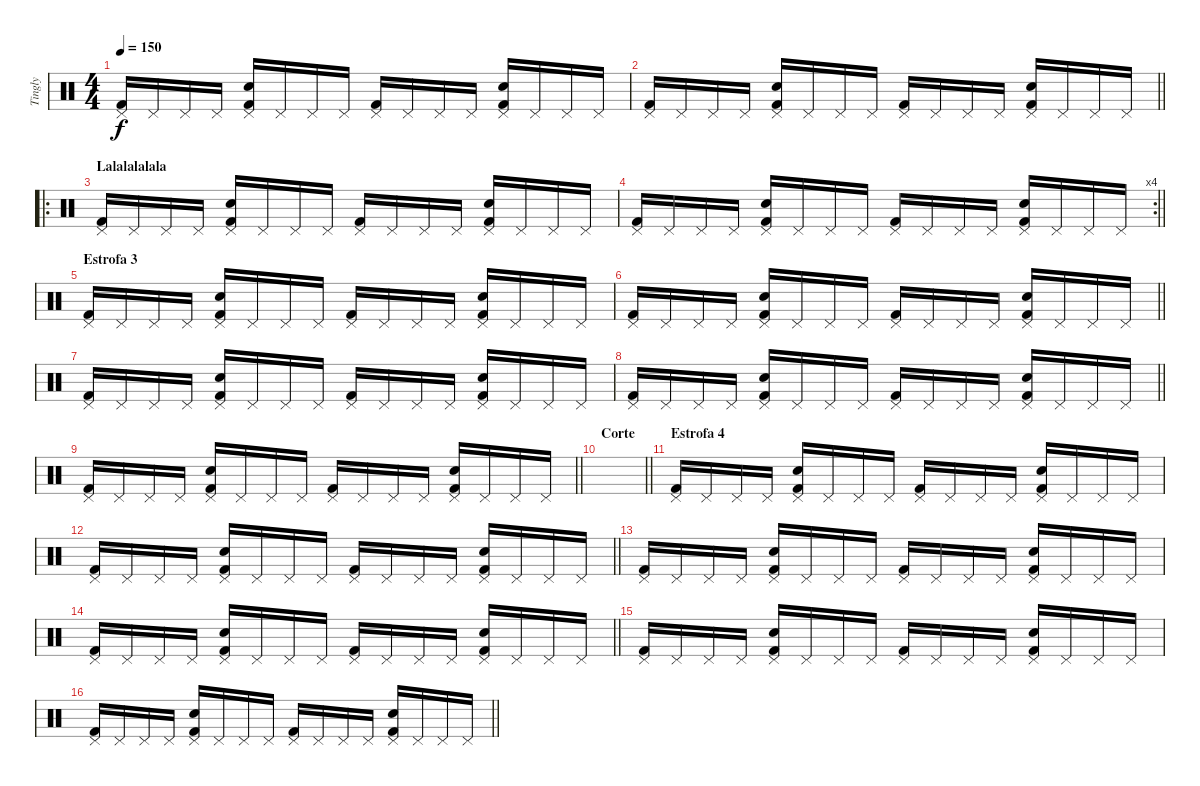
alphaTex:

\track ("Tingly" "Tingly") {instrument percussion}
\staff {score}
\articulation defaults
\ts (4 4)
\tempo 150
\clef neutral
\ks c
("Pedal Hi-Hat (hit)" "Kick (hit) 2").16{dy f} "Pedal Hi-Hat (hit)".16 "Pedal Hi-Hat (hit)".16 "Pedal Hi-Hat (hit)".16 ("Electric Snare (hit)" "Pedal Hi-Hat (hit)" "Kick (hit) 2").16 "Pedal Hi-Hat (hit)".16 "Pedal Hi-Hat (hit)".16 "Pedal Hi-Hat (hit)".16 ("Pedal Hi-Hat (hit)" "Kick (hit) 2").16 "Pedal Hi-Hat (hit)".16 "Pedal Hi-Hat (hit)".16 "Pedal Hi-Hat (hit)".16 ("Electric Snare (hit)" "Pedal Hi-Hat (hit)" "Kick (hit) 2").16 "Pedal Hi-Hat (hit)".16 "Pedal Hi-Hat (hit)".16 "Pedal Hi-Hat (hit)".16 |
\barLineRight lightlight
("Pedal Hi-Hat (hit)" "Kick (hit) 2").16 "Pedal Hi-Hat (hit)".16 "Pedal Hi-Hat (hit)".16 "Pedal Hi-Hat (hit)".16 ("Electric Snare (hit)" "Pedal Hi-Hat (hit)" "Kick (hit) 2").16 "Pedal Hi-Hat (hit)".16 "Pedal Hi-Hat (hit)".16 "Pedal Hi-Hat (hit)".16 ("Pedal Hi-Hat (hit)" "Kick (hit) 2").16 "Pedal Hi-Hat (hit)".16 "Pedal Hi-Hat (hit)".16 "Pedal Hi-Hat (hit)".16 ("Electric Snare (hit)" "Pedal Hi-Hat (hit)" "Kick (hit) 2").16 "Pedal Hi-Hat (hit)".16 "Pedal Hi-Hat (hit)".16 "Pedal Hi-Hat (hit)".16 |
\ro
\section ("" "Lalalalalala")
("Pedal Hi-Hat (hit)" "Kick (hit) 2").16 "Pedal Hi-Hat (hit)".16 "Pedal Hi-Hat (hit)".16 "Pedal Hi-Hat (hit)".16 ("Electric Snare (hit)" "Pedal Hi-Hat (hit)" "Kick (hit) 2").16 "Pedal Hi-Hat (hit)".16 "Pedal Hi-Hat (hit)".16 "Pedal Hi-Hat (hit)".16 ("Pedal Hi-Hat (hit)" "Kick (hit) 2").16 "Pedal Hi-Hat (hit)".16 "Pedal Hi-Hat (hit)".16 "Pedal Hi-Hat (hit)".16 ("Electric Snare (hit)" "Pedal Hi-Hat (hit)" "Kick (hit) 2").16 "Pedal Hi-Hat (hit)".16 "Pedal Hi-Hat (hit)".16 "Pedal Hi-Hat (hit)".16 |
\rc 4
\barLineRight lightlight
("Pedal Hi-Hat (hit)" "Kick (hit) 2").16 "Pedal Hi-Hat (hit)".16 "Pedal Hi-Hat (hit)".16 "Pedal Hi-Hat (hit)".16 ("Electric Snare (hit)" "Pedal Hi-Hat (hit)" "Kick (hit) 2").16 "Pedal Hi-Hat (hit)".16 "Pedal Hi-Hat (hit)".16 "Pedal Hi-Hat (hit)".16 ("Pedal Hi-Hat (hit)" "Kick (hit) 2").16 "Pedal Hi-Hat (hit)".16 "Pedal Hi-Hat (hit)".16 "Pedal Hi-Hat (hit)".16 ("Electric Snare (hit)" "Pedal Hi-Hat (hit)" "Kick (hit) 2").16 "Pedal Hi-Hat (hit)".16 "Pedal Hi-Hat (hit)".16 "Pedal Hi-Hat (hit)".16 |
\section ("" "Estrofa 3")
("Pedal Hi-Hat (hit)" "Kick (hit) 2").16 "Pedal Hi-Hat (hit)".16 "Pedal Hi-Hat (hit)".16 "Pedal Hi-Hat (hit)".16 ("Electric Snare (hit)" "Pedal Hi-Hat (hit)" "Kick (hit) 2").16 "Pedal Hi-Hat (hit)".16 "Pedal Hi-Hat (hit)".16 "Pedal Hi-Hat (hit)".16 ("Pedal Hi-Hat (hit)" "Kick (hit) 2").16 "Pedal Hi-Hat (hit)".16 "Pedal Hi-Hat (hit)".16 "Pedal Hi-Hat (hit)".16 ("Electric Snare (hit)" "Pedal Hi-Hat (hit)" "Kick (hit) 2").16 "Pedal Hi-Hat (hit)".16 "Pedal Hi-Hat (hit)".16 "Pedal Hi-Hat (hit)".16 |
\barLineRight lightlight
("Pedal Hi-Hat (hit)" "Kick (hit) 2").16 "Pedal Hi-Hat (hit)".16 "Pedal Hi-Hat (hit)".16 "Pedal Hi-Hat (hit)".16 ("Electric Snare (hit)" "Pedal Hi-Hat (hit)" "Kick (hit) 2").16 "Pedal Hi-Hat (hit)".16 "Pedal Hi-Hat (hit)".16 "Pedal Hi-Hat (hit)".16 ("Pedal Hi-Hat (hit)" "Kick (hit) 2").16 "Pedal Hi-Hat (hit)".16 "Pedal Hi-Hat (hit)".16 "Pedal Hi-Hat (hit)".16 ("Electric Snare (hit)" "Pedal Hi-Hat (hit)" "Kick (hit) 2").16 "Pedal Hi-Hat (hit)".16 "Pedal Hi-Hat (hit)".16 "Pedal Hi-Hat (hit)".16 |
("Pedal Hi-Hat (hit)" "Kick (hit) 2").16 "Pedal Hi-Hat (hit)".16 "Pedal Hi-Hat (hit)".16 "Pedal Hi-Hat (hit)".16 ("Electric Snare (hit)" "Pedal Hi-Hat (hit)" "Kick (hit) 2").16 "Pedal Hi-Hat (hit)".16 "Pedal Hi-Hat (hit)".16 "Pedal Hi-Hat (hit)".16 ("Pedal Hi-Hat (hit)" "Kick (hit) 2").16 "Pedal Hi-Hat (hit)".16 "Pedal Hi-Hat (hit)".16 "Pedal Hi-Hat (hit)".16 ("Electric Snare (hit)" "Pedal Hi-Hat (hit)" "Kick (hit) 2").16 "Pedal Hi-Hat (hit)".16 "Pedal Hi-Hat (hit)".16 "Pedal Hi-Hat (hit)".16 |
\barLineRight lightlight
("Pedal Hi-Hat (hit)" "Kick (hit) 2").16 "Pedal Hi-Hat (hit)".16 "Pedal Hi-Hat (hit)".16 "Pedal Hi-Hat (hit)".16 ("Electric Snare (hit)" "Pedal Hi-Hat (hit)" "Kick (hit) 2").16 "Pedal Hi-Hat (hit)".16 "Pedal Hi-Hat (hit)".16 "Pedal Hi-Hat (hit)".16 ("Pedal Hi-Hat (hit)" "Kick (hit) 2").16 "Pedal Hi-Hat (hit)".16 "Pedal Hi-Hat (hit)".16 "Pedal Hi-Hat (hit)".16 ("Electric Snare (hit)" "Pedal Hi-Hat (hit)" "Kick (hit) 2").16 "Pedal Hi-Hat (hit)".16 "Pedal Hi-Hat (hit)".16 "Pedal Hi-Hat (hit)".16 |
\barLineRight lightlight
("Pedal Hi-Hat (hit)" "Kick (hit) 2").16 "Pedal Hi-Hat (hit)".16 "Pedal Hi-Hat (hit)".16 "Pedal Hi-Hat (hit)".16 ("Electric Snare (hit)" "Pedal Hi-Hat (hit)" "Kick (hit) 2").16 "Pedal Hi-Hat (hit)".16 "Pedal Hi-Hat (hit)".16 "Pedal Hi-Hat (hit)".16 ("Pedal Hi-Hat (hit)" "Kick (hit) 2").16 "Pedal Hi-Hat (hit)".16 "Pedal Hi-Hat (hit)".16 "Pedal Hi-Hat (hit)".16 ("Electric Snare (hit)" "Pedal Hi-Hat (hit)" "Kick (hit) 2").16 "Pedal Hi-Hat (hit)".16 "Pedal Hi-Hat (hit)".16 "Pedal Hi-Hat (hit)".16 |
\section ("" "Corte")
\barLineRight lightlight
|
\section ("" "Estrofa 4")
("Pedal Hi-Hat (hit)" "Kick (hit) 2").16 "Pedal Hi-Hat (hit)".16 "Pedal Hi-Hat (hit)".16 "Pedal Hi-Hat (hit)".16 ("Electric Snare (hit)" "Pedal Hi-Hat (hit)" "Kick (hit) 2").16 "Pedal Hi-Hat (hit)".16 "Pedal Hi-Hat (hit)".16 "Pedal Hi-Hat (hit)".16 ("Pedal Hi-Hat (hit)" "Kick (hit) 2").16 "Pedal Hi-Hat (hit)".16 "Pedal Hi-Hat (hit)".16 "Pedal Hi-Hat (hit)".16 ("Electric Snare (hit)" "Pedal Hi-Hat (hit)" "Kick (hit) 2").16 "Pedal Hi-Hat (hit)".16 "Pedal Hi-Hat (hit)".16 "Pedal Hi-Hat (hit)".16 |
\barLineRight lightlight
("Pedal Hi-Hat (hit)" "Kick (hit) 2").16 "Pedal Hi-Hat (hit)".16 "Pedal Hi-Hat (hit)".16 "Pedal Hi-Hat (hit)".16 ("Electric Snare (hit)" "Pedal Hi-Hat (hit)" "Kick (hit) 2").16 "Pedal Hi-Hat (hit)".16 "Pedal Hi-Hat (hit)".16 "Pedal Hi-Hat (hit)".16 ("Pedal Hi-Hat (hit)" "Kick (hit) 2").16 "Pedal Hi-Hat (hit)".16 "Pedal Hi-Hat (hit)".16 "Pedal Hi-Hat (hit)".16 ("Electric Snare (hit)" "Pedal Hi-Hat (hit)" "Kick (hit) 2").16 "Pedal Hi-Hat (hit)".16 "Pedal Hi-Hat (hit)".16 "Pedal Hi-Hat (hit)".16 |
("Pedal Hi-Hat (hit)" "Kick (hit) 2").16 "Pedal Hi-Hat (hit)".16 "Pedal Hi-Hat (hit)".16 "Pedal Hi-Hat (hit)".16 ("Electric Snare (hit)" "Pedal Hi-Hat (hit)" "Kick (hit) 2").16 "Pedal Hi-Hat (hit)".16 "Pedal Hi-Hat (hit)".16 "Pedal Hi-Hat (hit)".16 ("Pedal Hi-Hat (hit)" "Kick (hit) 2").16 "Pedal Hi-Hat (hit)".16 "Pedal Hi-Hat (hit)".16 "Pedal Hi-Hat (hit)".16 ("Electric Snare (hit)" "Pedal Hi-Hat (hit)" "Kick (hit) 2").16 "Pedal Hi-Hat (hit)".16 "Pedal Hi-Hat (hit)".16 "Pedal Hi-Hat (hit)".16 |
\barLineRight lightlight
("Pedal Hi-Hat (hit)" "Kick (hit) 2").16 "Pedal Hi-Hat (hit)".16 "Pedal Hi-Hat (hit)".16 "Pedal Hi-Hat (hit)".16 ("Electric Snare (hit)" "Pedal Hi-Hat (hit)" "Kick (hit) 2").16 "Pedal Hi-Hat (hit)".16 "Pedal Hi-Hat (hit)".16 "Pedal Hi-Hat (hit)".16 ("Pedal Hi-Hat (hit)" "Kick (hit) 2").16 "Pedal Hi-Hat (hit)".16 "Pedal Hi-Hat (hit)".16 "Pedal Hi-Hat (hit)".16 ("Electric Snare (hit)" "Pedal Hi-Hat (hit)" "Kick (hit) 2").16 "Pedal Hi-Hat (hit)".16 "Pedal Hi-Hat (hit)".16 "Pedal Hi-Hat (hit)".16 |
("Pedal Hi-Hat (hit)" "Kick (hit) 2").16 "Pedal Hi-Hat (hit)".16 "Pedal Hi-Hat (hit)".16 "Pedal Hi-Hat (hit)".16 ("Electric Snare (hit)" "Pedal Hi-Hat (hit)" "Kick (hit) 2").16 "Pedal Hi-Hat (hit)".16 "Pedal Hi-Hat (hit)".16 "Pedal Hi-Hat (hit)".16 ("Pedal Hi-Hat (hit)" "Kick (hit) 2").16 "Pedal Hi-Hat (hit)".16 "Pedal Hi-Hat (hit)".16 "Pedal Hi-Hat (hit)".16 ("Electric Snare (hit)" "Pedal Hi-Hat (hit)" "Kick (hit) 2").16 "Pedal Hi-Hat (hit)".16 "Pedal Hi-Hat (hit)".16 "Pedal Hi-Hat (hit)".16 |
\barLineRight lightlight
("Pedal Hi-Hat (hit)" "Kick (hit) 2").16 "Pedal Hi-Hat (hit)".16 "Pedal Hi-Hat (hit)".16 "Pedal Hi-Hat (hit)".16 ("Electric Snare (hit)" "Pedal Hi-Hat (hit)" "Kick (hit) 2").16 "Pedal Hi-Hat (hit)".16 "Pedal Hi-Hat (hit)".16 "Pedal Hi-Hat (hit)".16 ("Pedal Hi-Hat (hit)" "Kick (hit) 2").16 "Pedal Hi-Hat (hit)".16 "Pedal Hi-Hat (hit)".16 "Pedal Hi-Hat (hit)".16 ("Electric Snare (hit)" "Pedal Hi-Hat (hit)" "Kick (hit) 2").16 "Pedal Hi-Hat (hit)".16 "Pedal Hi-Hat (hit)".16 "Pedal Hi-Hat (hit)".16
